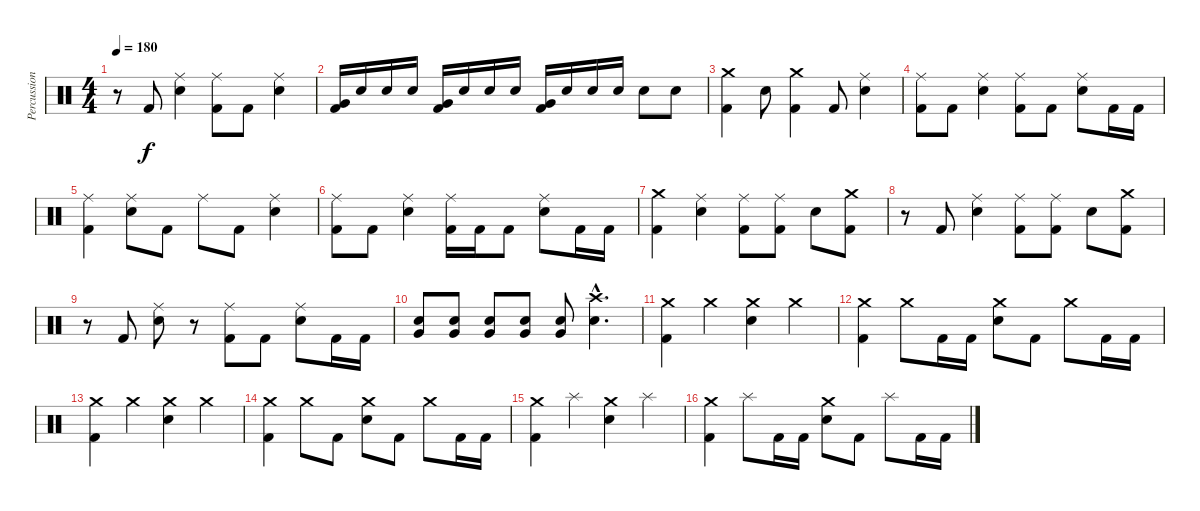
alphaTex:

\track ("Percussion" "Percussion") {instrument percussion}
\staff {score}
\articulation defaults
\ts (4 4)
\tempo 180
\clef neutral
\ks c
r.8{dy f} "Kick (hit) 2".8 ("Ride (middle)" "Electric Snare (hit)").4 ("Ride (middle)" "Kick (hit) 2").8 "Kick (hit) 2".8 ("Ride (middle)" "Electric Snare (hit)").4 |
("Very Low Tom (hit)" "Kick (hit) 2").16 "Electric Snare (hit)".16 "Electric Snare (hit)".16 "Electric Snare (hit)".16 ("Very Low Tom (hit)" "Kick (hit) 2").16 "Electric Snare (hit)".16 "Electric Snare (hit)".16 "Electric Snare (hit)".16 ("Very Low Tom (hit)" "Kick (hit) 2").16 "Electric Snare (hit)".16 "Electric Snare (hit)".16 "Electric Snare (hit)".16 "Electric Snare (hit)".8 "Electric Snare (hit)".8 |
("Crash medium (hit)" "Kick (hit) 2").4 "Electric Snare (hit)".8 ("Crash medium (hit)" "Kick (hit) 2").4 "Kick (hit) 2".8 ("Ride (middle)" "Electric Snare (hit)").4 |
("Ride (middle)" "Kick (hit) 2").8 "Kick (hit) 2".8 ("Ride (middle)" "Electric Snare (hit)").4 ("Ride (middle)" "Kick (hit) 2").8 "Kick (hit) 2".8 ("Ride (middle)" "Electric Snare (hit)").8 "Kick (hit) 2".16 "Kick (hit) 2".16 |
("Ride (middle)" "Kick (hit) 2").4 ("Ride (middle)" "Electric Snare (hit)").8 "Kick (hit) 2".8 "Ride (middle)".8 "Kick (hit) 2".8 ("Ride (middle)" "Electric Snare (hit)").4 |
("Ride (middle)" "Kick (hit) 2").8 "Kick (hit) 2".8 ("Ride (middle)" "Electric Snare (hit)").4 ("Ride (middle)" "Kick (hit) 2").16 "Kick (hit) 2".16 "Kick (hit) 2".8 ("Ride (middle)" "Electric Snare (hit)").8 "Kick (hit) 2".16 "Kick (hit) 2".16 |
("Crash medium (hit)" "Kick (hit) 2").4 ("Ride (middle)" "Electric Snare (hit)").4 ("Ride (middle)" "Kick (hit) 2").8 ("Ride (middle)" "Kick (hit) 2").8 "Electric Snare (hit)".8 ("Crash medium (hit)" "Kick (hit) 2").8 |
r.8 "Kick (hit) 2".8 ("Ride (middle)" "Electric Snare (hit)").4 ("Ride (middle)" "Kick (hit) 2").8 ("Ride (middle)" "Kick (hit) 2").8 "Electric Snare (hit)".8 ("Crash medium (hit)" "Kick (hit) 2").8 |
r.8 "Kick (hit) 2".8 ("Ride (middle)" "Electric Snare (hit)").8 r.8 ("Ride (middle)" "Kick (hit) 2").8 "Kick (hit) 2".8 ("Ride (middle)" "Electric Snare (hit)").8 "Kick (hit) 2".16 "Kick (hit) 2".16 |
("Very Low Tom (hit)" "Electric Snare (hit)").8 ("Very Low Tom (hit)" "Electric Snare (hit)").8 ("Very Low Tom (hit)" "Electric Snare (hit)").8 ("Very Low Tom (hit)" "Electric Snare (hit)").8 ("Very Low Tom (hit)" "Electric Snare (hit)").8 ("Crash high (hit)"{hac} "Electric Snare (hit)"{hac}).4{d} |
("Crash medium (hit)" "Kick (hit) 2").4 "Crash medium (hit)".4 ("Crash medium (hit)" "Electric Snare (hit)").4 "Crash medium (hit)".4 |
("Crash medium (hit)" "Kick (hit) 2").4 "Crash medium (hit)".8 "Kick (hit) 2".16 "Kick (hit) 2".16 ("Crash medium (hit)" "Electric Snare (hit)").8 "Kick (hit) 2".8 "Crash medium (hit)".8 "Kick (hit) 2".16 "Kick (hit) 2".16 |
("Crash medium (hit)" "Kick (hit) 2").4 "Crash medium (hit)".4 ("Crash medium (hit)" "Electric Snare (hit)").4 "Crash medium (hit)".4 |
("Crash medium (hit)" "Kick (hit) 2").4 "Crash medium (hit)".8 "Kick (hit) 2".8 ("Crash medium (hit)" "Electric Snare (hit)").8 "Kick (hit) 2".8 "Crash medium (hit)".8 "Kick (hit) 2".16 "Kick (hit) 2".16 |
("Crash medium (hit)" "Kick (hit) 2").4 "Splash (hit)".4 ("Crash medium (hit)" "Electric Snare (hit)").4 "Splash (hit)".4 |
("Crash medium (hit)" "Kick (hit) 2").4 "Splash (hit)".8 "Kick (hit) 2".16 "Kick (hit) 2".16 ("Crash medium (hit)" "Electric Snare (hit)").8 "Kick (hit) 2".8 "Splash (hit)".8 "Kick (hit) 2".16 "Kick (hit) 2".16
